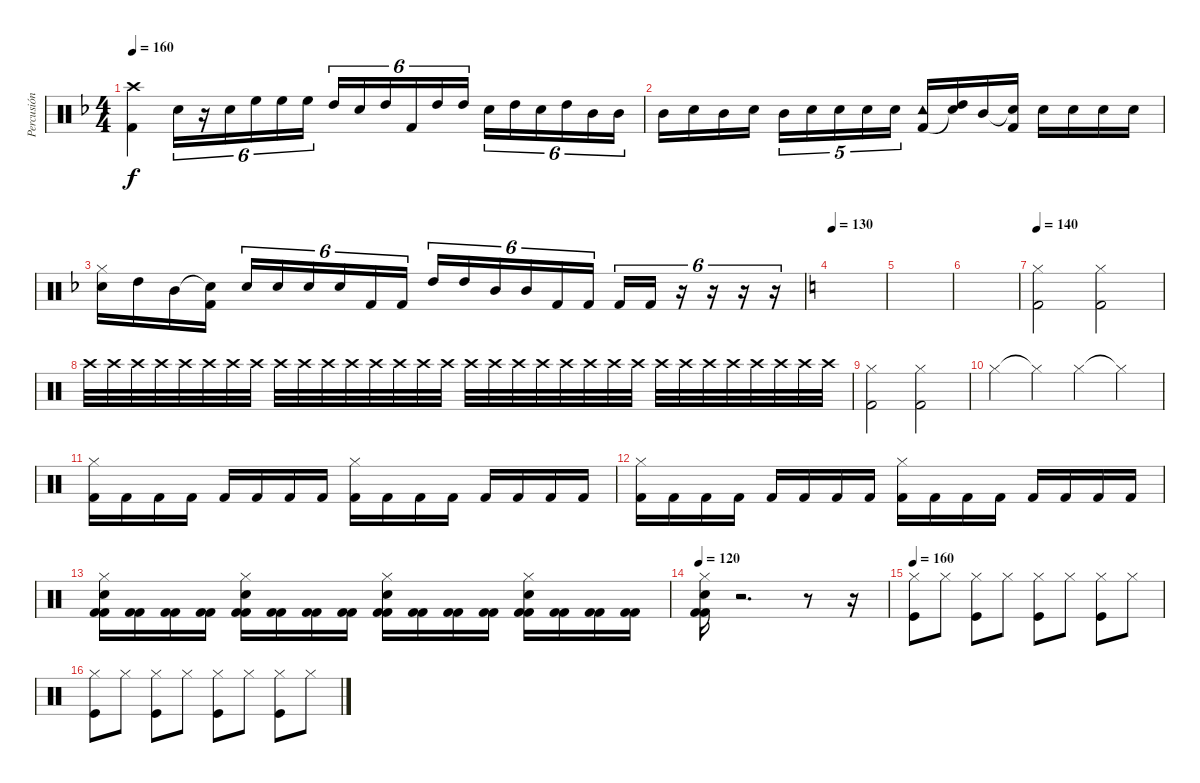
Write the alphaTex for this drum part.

\track ("Percusión" "Percusión") {instrument percussion}
\staff {score}
\articulation defaults
\ts (4 4)
\tempo 160
\clef neutral
\ks f
("Crash high (hit)" "Kick (hit) 2").4{dy f} "Snare (hit) 2".16{tu (6 4)} r.16{tu (6 4)} "Snare (hit) 2".16{tu (6 4)} "High Floor Tom (hit)".16{tu (6 4)} "High Floor Tom (hit)".16{tu (6 4)} "High Floor Tom (hit)".16{tu (6 4)} "High Tom (hit)".16{tu (6 4)} "Snare (hit) 2".16{tu (6 4)} "High Tom (hit)".16{tu (6 4)} "Kick (hit) 2".16{tu (6 4)} "High Tom (hit)".16{tu (6 4)} "High Tom (hit)".16{tu (6 4)} "Snare (hit) 2".16{tu (6 4)} "High Tom (hit)".16{tu (6 4)} "Snare (hit) 2".16{tu (6 4)} "High Tom (hit)".16{tu (6 4)} "Mid Tom (hit)".16{tu (6 4)} "Mid Tom (hit)".16{tu (6 4)} |
"Mid Tom (hit)".16 "Snare (hit) 2".16 "Mid Tom (hit)".16 "Snare (hit) 2".16 "Mid Tom (hit)".16{tu (5 4)} "Snare (hit) 2".16{tu (5 4)} "Snare (hit) 2".16{tu (5 4)} "Snare (hit) 2".16{tu (5 4)} "Snare (hit) 2".16{tu (5 4)} ("Tambourine (hit)" "Kick (hit) 2").16 ("High Tom (hit)" "Snare (hit)"{t}).16 "Mid Tom (hit)".16 ("Snare (hit)"{t} "Kick (hit) 2").16 "Snare (hit) 2".16 "Snare (hit) 2".16 "Snare (hit) 2".16 "Snare (hit) 2".16 |
("Hi-Hat (closed)" "Snare (hit) 2").16 "High Tom (hit)".16 "Mid Tom (hit)".16 ("Snare (hit)"{t} "Kick (hit) 2").16 "Snare (hit) 2".16{tu (6 4)} "Snare (hit) 2".16{tu (6 4)} "Snare (hit) 2".16{tu (6 4)} "Snare (hit) 2".16{tu (6 4)} "Kick (hit) 2".16{tu (6 4)} "Kick (hit) 2".16{tu (6 4)} "High Tom (hit)".16{tu (6 4)} "High Tom (hit)".16{tu (6 4)} "Mid Tom (hit)".16{tu (6 4)} "Mid Tom (hit)".16{tu (6 4)} "Kick (hit) 2".16{tu (6 4)} "Kick (hit) 2".16{tu (6 4)} "Kick (hit) 2".16{tu (6 4)} "Kick (hit) 2".16{tu (6 4)} r.16{tu (6 4)} r.16{tu (6 4)} r.16{tu (6 4)} r.16{tu (6 4)} |
\tempo 130
\ks c
|
|
|
\tempo 140
("Kick (hit) 2" "Hi-Hat (closed)").2 ("Kick (hit) 2" "Hi-Hat (closed)").2 |
"Crash high (hit)".32{volume 0} "Crash high (hit)".32{volume 16} "Crash high (hit)".32 "Crash high (hit)".32 "Crash high (hit)".32 "Crash high (hit)".32 "Crash high (hit)".32 "Crash high (hit)".32 "Crash high (hit)".32 "Crash high (hit)".32 "Crash high (hit)".32 "Crash high (hit)".32 "Crash high (hit)".32 "Crash high (hit)".32 "Crash high (hit)".32 "Crash high (hit)".32 "Crash high (hit)".32{volume 6} "Crash high (hit)".32 "Crash high (hit)".32 "Crash high (hit)".32 "Crash high (hit)".32 "Crash high (hit)".32 "Crash high (hit)".32 "Crash high (hit)".32 "Crash high (hit)".32 "Crash high (hit)".32 "Crash high (hit)".32 "Crash high (hit)".32 "Crash high (hit)".32 "Crash high (hit)".32 "Crash high (hit)".32 "Crash high (hit)".32 |
("Kick (hit) 2" "Hi-Hat (closed)").2{volume 15} ("Kick (hit) 2" "Hi-Hat (closed)").2 |
"Hi-Hat (closed)".4 "Hi-Hat (closed)"{t}.4 "Hi-Hat (closed)".4 "Hi-Hat (closed)"{t}.4 |
("Hi-Hat (closed)" "Kick (hit) 2").16 "Kick (hit) 2".16 "Kick (hit) 2".16 "Kick (hit) 2".16 "Kick (hit) 2".16 "Kick (hit) 2".16 "Kick (hit) 2".16 "Kick (hit) 2".16 ("Hi-Hat (closed)" "Kick (hit) 2").16 "Kick (hit) 2".16 "Kick (hit) 2".16 "Kick (hit) 2".16 "Kick (hit) 2".16 "Kick (hit) 2".16 "Kick (hit) 2".16 "Kick (hit) 2".16 |
("Hi-Hat (closed)" "Kick (hit) 2").16 "Kick (hit) 2".16 "Kick (hit) 2".16 "Kick (hit) 2".16 "Kick (hit) 2".16 "Kick (hit) 2".16 "Kick (hit) 2".16 "Kick (hit) 2".16 ("Hi-Hat (closed)" "Kick (hit) 2").16 "Kick (hit) 2".16 "Kick (hit) 2".16 "Kick (hit) 2".16 "Kick (hit) 2".16 "Kick (hit) 2".16 "Kick (hit) 2".16 "Kick (hit) 2".16 |
("Snare (hit) 2" "Kick (hit) 2" "Hi-Hat (closed)" "Kick (hit) 2").16 ("Kick (hit) 2" "Kick (hit) 2").16 ("Kick (hit) 2" "Kick (hit) 2").16 ("Kick (hit) 2" "Kick (hit) 2").16 ("Snare (hit) 2" "Kick (hit) 2" "Hi-Hat (closed)" "Kick (hit) 2").16 ("Kick (hit) 2" "Kick (hit) 2").16 ("Kick (hit) 2" "Kick (hit) 2").16 ("Kick (hit) 2" "Kick (hit) 2").16 ("Snare (hit) 2" "Kick (hit) 2" "Hi-Hat (closed)" "Kick (hit) 2").16 ("Kick (hit) 2" "Kick (hit) 2").16 ("Kick (hit) 2" "Kick (hit) 2").16 ("Kick (hit) 2" "Kick (hit) 2").16 ("Snare (hit) 2" "Kick (hit) 2" "Hi-Hat (closed)" "Kick (hit) 2").16 ("Kick (hit) 2" "Kick (hit) 2").16 ("Kick (hit) 2" "Kick (hit) 2").16 ("Kick (hit) 2" "Kick (hit) 2").16 |
\tempo 120
("Kick (hit) 2" "Kick (hit) 2" "Hi-Hat (closed)" "Snare (hit) 2").16 r.2{d} r.8 r.16 |
\tempo 160
("Kick (hit)" "Hi-Hat (closed)").8 "Hi-Hat (closed)".8 ("Kick (hit)" "Hi-Hat (closed)").8 "Hi-Hat (closed)".8 ("Kick (hit)" "Hi-Hat (closed)").8 "Hi-Hat (closed)".8 ("Kick (hit)" "Hi-Hat (closed)").8 "Hi-Hat (closed)".8 |
("Kick (hit)" "Hi-Hat (closed)").8 "Hi-Hat (closed)".8 ("Kick (hit)" "Hi-Hat (closed)").8 "Hi-Hat (closed)".8 ("Kick (hit)" "Hi-Hat (closed)").8 "Hi-Hat (closed)".8 ("Kick (hit)" "Hi-Hat (closed)").8 "Hi-Hat (closed)".8
